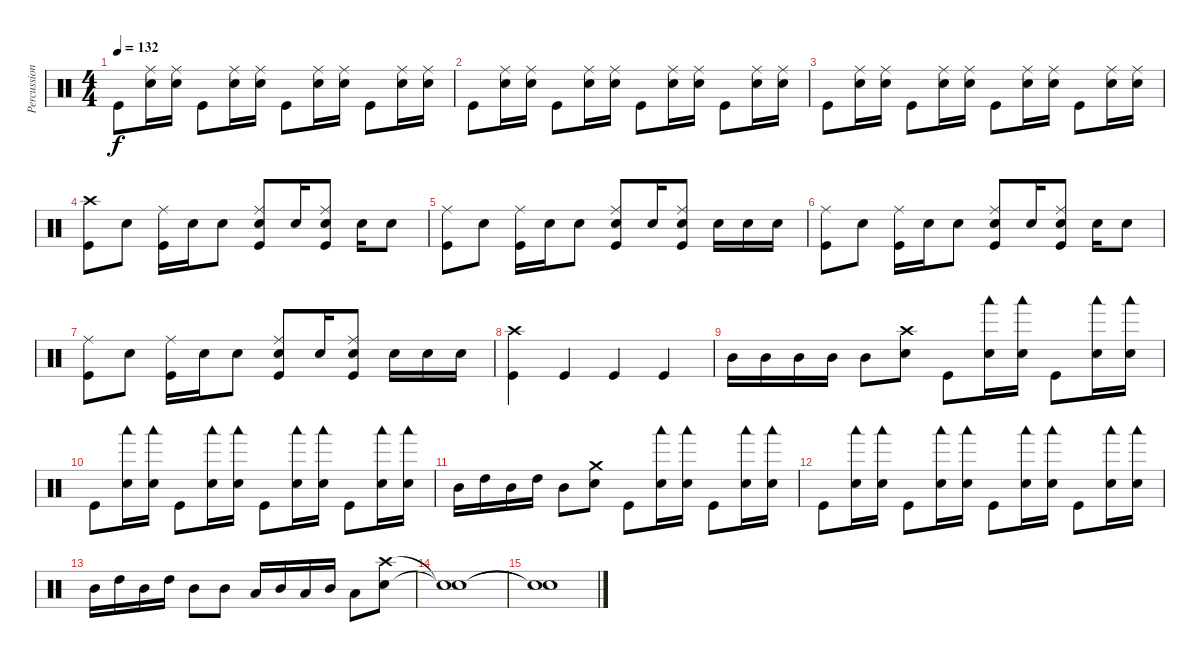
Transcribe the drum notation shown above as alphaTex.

\track ("Percussion" "Percussion") {instrument percussion}
\staff {score}
\articulation defaults
\ts (4 4)
\tempo 132
\clef neutral
\ks c "Kick (hit)".8{dy f}
("Ride (middle)" "Snare (hit) 2").16 ("Ride (middle)" "Snare (hit) 2").16 "Kick (hit)".8 ("Ride (middle)" "Snare (hit) 2").16 ("Ride (middle)" "Snare (hit) 2").16 "Kick (hit)".8 ("Ride (middle)" "Snare (hit) 2").16 ("Ride (middle)" "Snare (hit) 2").16 "Kick (hit)".8 ("Ride (middle)" "Snare (hit) 2").16 ("Ride (middle)" "Snare (hit) 2").16 |
"Kick (hit)".8 ("Ride (middle)" "Snare (hit) 2").16 ("Ride (middle)" "Snare (hit) 2").16 "Kick (hit)".8 ("Ride (middle)" "Snare (hit) 2").16 ("Ride (middle)" "Snare (hit) 2").16 "Kick (hit)".8 ("Ride (middle)" "Snare (hit) 2").16 ("Ride (middle)" "Snare (hit) 2").16 "Kick (hit)".8 ("Ride (middle)" "Snare (hit) 2").16 ("Ride (middle)" "Snare (hit) 2").16 |
"Kick (hit)".8 ("Ride (middle)" "Snare (hit) 2").16 ("Ride (middle)" "Snare (hit) 2").16 "Kick (hit)".8 ("Ride (middle)" "Snare (hit) 2").16 ("Ride (middle)" "Snare (hit) 2").16 "Kick (hit)".8 ("Ride (middle)" "Snare (hit) 2").16 ("Ride (middle)" "Snare (hit) 2").16 "Kick (hit)".8 ("Ride (middle)" "Snare (hit) 2").16 ("Ride (middle)" "Snare (hit) 2").16 |
("Kick (hit)" "Crash high (hit)").8 "Snare (hit) 2".8 ("Kick (hit)" "Ride (middle)").16 "Snare (hit) 2".16 "Snare (hit) 2".8 ("Kick (hit)" "Ride (middle)" "Snare (hit) 2").8 "Snare (hit) 2".16 ("Kick (hit)" "Ride (middle)" "Snare (hit) 2").8 "Snare (hit) 2".16 "Snare (hit) 2".8 |
("Kick (hit)" "Ride (middle)").8 "Snare (hit) 2".8 ("Kick (hit)" "Ride (middle)").16 "Snare (hit) 2".16 "Snare (hit) 2".8 ("Kick (hit)" "Ride (middle)" "Snare (hit) 2").8 "Snare (hit) 2".16 ("Kick (hit)" "Ride (middle)" "Snare (hit) 2").8 "Snare (hit) 2".16 "Snare (hit) 2".16 "Snare (hit) 2".16 |
("Kick (hit)" "Ride (middle)").8 "Snare (hit) 2".8 ("Kick (hit)" "Ride (middle)").16 "Snare (hit) 2".16 "Snare (hit) 2".8 ("Kick (hit)" "Ride (middle)" "Snare (hit) 2").8 "Snare (hit) 2".16 ("Kick (hit)" "Ride (middle)" "Snare (hit) 2").8 "Snare (hit) 2".16 "Snare (hit) 2".8 |
("Kick (hit)" "Ride (middle)").8 "Snare (hit) 2".8 ("Kick (hit)" "Ride (middle)").16 "Snare (hit) 2".16 "Snare (hit) 2".8 ("Kick (hit)" "Ride (middle)" "Snare (hit) 2").8 "Snare (hit) 2".16 ("Kick (hit)" "Ride (middle)" "Snare (hit) 2").8 "Snare (hit) 2".16 "Snare (hit) 2".16 "Snare (hit) 2".16 |
("Kick (hit)" "Crash high (hit)").4 "Kick (hit)".4 "Kick (hit)".4 "Kick (hit)".4 |
"Mid Tom (hit)".16 "Mid Tom (hit)".16 "Mid Tom (hit)".16 "Mid Tom (hit)".16 "Mid Tom (hit)".8 ("Crash high (hit)" "Snare (hit) 2").8 "Kick (hit)".8 ("Woodblock low (hit)" "Snare (hit) 2").16 ("Woodblock low (hit)" "Snare (hit) 2").16 "Kick (hit)".8 ("Woodblock low (hit)" "Snare (hit) 2").16 ("Woodblock low (hit)" "Snare (hit) 2").16 |
"Kick (hit)".8 ("Woodblock low (hit)" "Snare (hit) 2").16 ("Woodblock low (hit)" "Snare (hit) 2").16 "Kick (hit)".8 ("Woodblock low (hit)" "Snare (hit) 2").16 ("Woodblock low (hit)" "Snare (hit) 2").16 "Kick (hit)".8 ("Woodblock low (hit)" "Snare (hit) 2").16 ("Woodblock low (hit)" "Snare (hit) 2").16 "Kick (hit)".8 ("Woodblock low (hit)" "Snare (hit) 2").16 ("Woodblock low (hit)" "Snare (hit) 2").16 |
"Mid Tom (hit)".16 "High Tom (hit)".16 "Mid Tom (hit)".16 "High Tom (hit)".16 "Mid Tom (hit)".8 ("Crash medium (hit)" "Snare (hit) 2").8 "Kick (hit)".8 ("Woodblock low (hit)" "Snare (hit) 2").16 ("Woodblock low (hit)" "Snare (hit) 2").16 "Kick (hit)".8 ("Woodblock low (hit)" "Snare (hit) 2").16 ("Woodblock low (hit)" "Snare (hit) 2").16 |
"Kick (hit)".8 ("Woodblock low (hit)" "Snare (hit) 2").16 ("Woodblock low (hit)" "Snare (hit) 2").16 "Kick (hit)".8 ("Woodblock low (hit)" "Snare (hit) 2").16 ("Woodblock low (hit)" "Snare (hit) 2").16 "Kick (hit)".8 ("Woodblock low (hit)" "Snare (hit) 2").16 ("Woodblock low (hit)" "Snare (hit) 2").16 "Kick (hit)".8 ("Woodblock low (hit)" "Snare (hit) 2").16 ("Woodblock low (hit)" "Snare (hit) 2").16 |
"Mid Tom (hit)".16 "High Tom (hit)".16 "Mid Tom (hit)".16 "High Tom (hit)".16 "Mid Tom (hit)".8 "Mid Tom (hit)".8 "Low Tom (hit)".16 "Mid Tom (hit)".16 "Low Tom (hit)".16 "Mid Tom (hit)".16 "Low Tom (hit)".8 ("Crash high (hit)" "Snare (hit) 2").8 |
("Snare (hit)"{t} "Snare (hit)"{t}).1 |
("Snare (hit)"{t} "Snare (hit)"{t}).1
